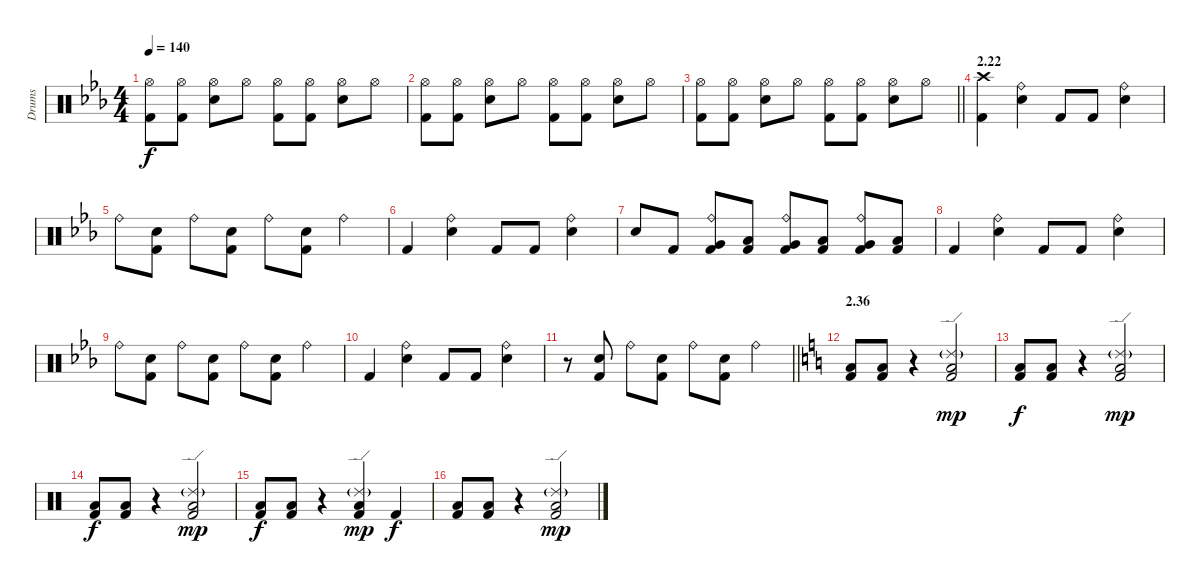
\track ("Drums" "Drums") {instrument percussion}
\staff {score}
\articulation defaults
\ts (4 4)
\tempo 140
\clef neutral
\ks cminor
("Hi-Hat (open)" "Kick (hit) 2").8{dy f} ("Hi-Hat (open)" "Kick (hit) 2").8 ("Hi-Hat (open)" "Electric Snare (hit)").8 "Hi-Hat (open)".8 ("Hi-Hat (open)" "Kick (hit) 2").8 ("Hi-Hat (open)" "Kick (hit) 2").8 ("Hi-Hat (open)" "Electric Snare (hit)").8 "Hi-Hat (open)".8 |
("Hi-Hat (open)" "Kick (hit) 2").8 ("Hi-Hat (open)" "Kick (hit) 2").8 ("Hi-Hat (open)" "Electric Snare (hit)").8 "Hi-Hat (open)".8 ("Hi-Hat (open)" "Kick (hit) 2").8 ("Hi-Hat (open)" "Kick (hit) 2").8 ("Hi-Hat (open)" "Electric Snare (hit)").8 "Hi-Hat (open)".8 |
\barLineRight lightlight
("Hi-Hat (open)" "Kick (hit) 2").8 ("Hi-Hat (open)" "Kick (hit) 2").8 ("Hi-Hat (open)" "Electric Snare (hit)").8 "Hi-Hat (open)".8 ("Hi-Hat (open)" "Kick (hit) 2").8 ("Hi-Hat (open)" "Kick (hit) 2").8 ("Hi-Hat (open)" "Electric Snare (hit)").8 "Hi-Hat (open)".8 |
\section ("" "2.22")
("Crash high (hit)" "Kick (hit) 2").4 ("Ride (bell)" "Electric Snare (hit)").4 "Kick (hit) 2".8 "Kick (hit) 2".8 ("Ride (bell)" "Electric Snare (hit)").4 |
"Ride (bell)".8 ("Electric Snare (hit)" "Kick (hit) 2").8 "Ride (bell)".8 ("Electric Snare (hit)" "Kick (hit) 2").8 "Ride (bell)".8 ("Electric Snare (hit)" "Kick (hit) 2").8 "Ride (bell)".4 |
"Kick (hit) 2".4 ("Ride (bell)" "Electric Snare (hit)").4 "Kick (hit) 2".8 "Kick (hit) 2".8 ("Ride (bell)" "Electric Snare (hit)").4 |
"Electric Snare (hit)".8 "Kick (hit) 2".8 ("Ride (bell)" "Very Low Tom (hit)" "Kick (hit) 2").8 ("Low Floor Tom (hit)" "Kick (hit) 2").8 ("Ride (bell)" "Very Low Tom (hit)" "Kick (hit) 2").8 ("Low Floor Tom (hit)" "Kick (hit) 2").8 ("Ride (bell)" "Very Low Tom (hit)" "Kick (hit) 2").8 ("Low Floor Tom (hit)" "Kick (hit) 2").8 |
"Kick (hit) 2".4 ("Ride (bell)" "Electric Snare (hit)").4 "Kick (hit) 2".8 "Kick (hit) 2".8 ("Ride (bell)" "Electric Snare (hit)").4 |
"Ride (bell)".8 ("Electric Snare (hit)" "Kick (hit) 2").8 "Ride (bell)".8 ("Electric Snare (hit)" "Kick (hit) 2").8 "Ride (bell)".8 ("Electric Snare (hit)" "Kick (hit) 2").8 "Ride (bell)".4 |
"Kick (hit) 2".4 ("Ride (bell)" "Electric Snare (hit)").4 "Kick (hit) 2".8 "Kick (hit) 2".8 ("Ride (bell)" "Electric Snare (hit)").4 |
\barLineRight lightlight
r.8 ("Electric Snare (hit)" "Kick (hit) 2").8 "Ride (bell)".8 ("Electric Snare (hit)" "Kick (hit) 2").8 "Ride (bell)".8 ("Electric Snare (hit)" "Kick (hit) 2").8 "Ride (bell)".4 |
\section ("" "2.36")
\ks aminor
("Low Floor Tom (hit)" "Kick (hit) 2").8 ("Low Floor Tom (hit)" "Kick (hit) 2").8 r.4 ("Ride (edge) 2"{g} "Low Floor Tom (hit)" "Kick (hit) 2").2{dy mp} |
("Low Floor Tom (hit)" "Kick (hit) 2").8{dy f} ("Low Floor Tom (hit)" "Kick (hit) 2").8 r.4 ("Ride (edge) 2"{g} "Low Floor Tom (hit)" "Kick (hit) 2").2{dy mp} |
("Low Floor Tom (hit)" "Kick (hit) 2").8{dy f} ("Low Floor Tom (hit)" "Kick (hit) 2").8 r.4 ("Ride (edge) 2"{g} "Low Floor Tom (hit)" "Kick (hit) 2").2{dy mp} |
("Low Floor Tom (hit)" "Kick (hit) 2").8{dy f} ("Low Floor Tom (hit)" "Kick (hit) 2").8 r.4 ("Ride (edge) 2"{g} "Low Floor Tom (hit)" "Kick (hit) 2").4{dy mp} "Kick (hit) 2".4{dy f} |
("Low Floor Tom (hit)" "Kick (hit) 2").8 ("Low Floor Tom (hit)" "Kick (hit) 2").8 r.4 ("Ride (edge) 2"{g} "Low Floor Tom (hit)" "Kick (hit) 2").2{dy mp}
